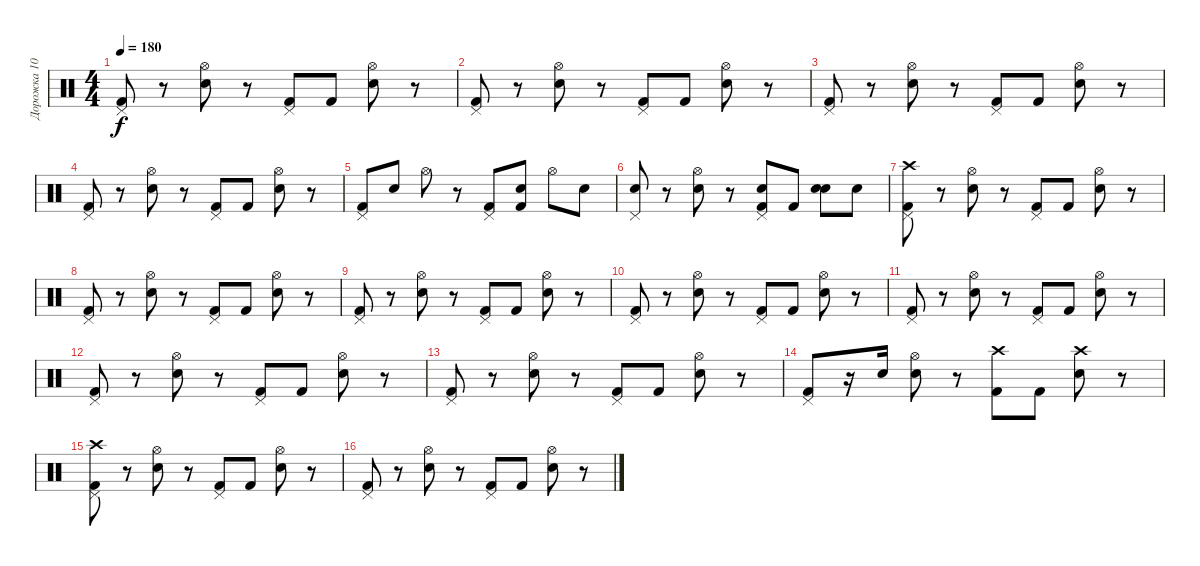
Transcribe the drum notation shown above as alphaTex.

\track ("Дорожка 10" "Дорожка 10") {instrument percussion}
\staff {score}
\articulation defaults
\ts (4 4)
\tempo 180
\clef neutral
\ks c
("Kick (hit) 2" "Pedal Hi-Hat (hit)").8{dy f} r.8 ("Snare (hit) 2" "Hi-Hat (open)").8 r.8 ("Kick (hit) 2" "Pedal Hi-Hat (hit)").8 "Kick (hit) 2".8 ("Snare (hit) 2" "Hi-Hat (open)").8 r.8 |
("Kick (hit) 2" "Pedal Hi-Hat (hit)").8 r.8 ("Snare (hit) 2" "Hi-Hat (open)").8 r.8 ("Kick (hit) 2" "Pedal Hi-Hat (hit)").8 "Kick (hit) 2".8 ("Snare (hit) 2" "Hi-Hat (open)").8 r.8 |
("Kick (hit) 2" "Pedal Hi-Hat (hit)").8 r.8 ("Snare (hit) 2" "Hi-Hat (open)").8 r.8 ("Kick (hit) 2" "Pedal Hi-Hat (hit)").8 "Kick (hit) 2".8 ("Snare (hit) 2" "Hi-Hat (open)").8 r.8 |
("Kick (hit) 2" "Pedal Hi-Hat (hit)").8 r.8 ("Snare (hit) 2" "Hi-Hat (open)").8 r.8 ("Kick (hit) 2" "Pedal Hi-Hat (hit)").8 "Kick (hit) 2".8 ("Snare (hit) 2" "Hi-Hat (open)").8 r.8 |
("Kick (hit) 2" "Pedal Hi-Hat (hit)").8 "Snare (hit) 2".8 "Hi-Hat (open)".8 r.8 ("Kick (hit) 2" "Pedal Hi-Hat (hit)").8 ("Snare (hit) 2" "Kick (hit) 2").8 "Hi-Hat (open)".8 "Snare (hit) 2".8 |
("Snare (hit) 2" "Pedal Hi-Hat (hit)").8 r.8 ("Snare (hit) 2" "Hi-Hat (open)").8 r.8 ("Snare (hit) 2" "Kick (hit) 2" "Pedal Hi-Hat (hit)").8 "Kick (hit) 2".8 ("Snare (hit) 2" "Electric Snare (hit)").8 "Snare (hit) 2".8 |
("Kick (hit) 2" "Crash high (hit)" "Pedal Hi-Hat (hit)").8 r.8 ("Snare (hit) 2" "Hi-Hat (open)").8 r.8 ("Kick (hit) 2" "Pedal Hi-Hat (hit)").8 "Kick (hit) 2".8 ("Snare (hit) 2" "Hi-Hat (open)").8 r.8 |
("Kick (hit) 2" "Pedal Hi-Hat (hit)").8 r.8 ("Snare (hit) 2" "Hi-Hat (open)").8 r.8 ("Kick (hit) 2" "Pedal Hi-Hat (hit)").8 "Kick (hit) 2".8 ("Snare (hit) 2" "Hi-Hat (open)").8 r.8 |
("Kick (hit) 2" "Pedal Hi-Hat (hit)").8 r.8 ("Snare (hit) 2" "Hi-Hat (open)").8 r.8 ("Kick (hit) 2" "Pedal Hi-Hat (hit)").8 "Kick (hit) 2".8 ("Snare (hit) 2" "Hi-Hat (open)").8 r.8 |
("Kick (hit) 2" "Pedal Hi-Hat (hit)").8 r.8 ("Snare (hit) 2" "Hi-Hat (open)").8 r.8 ("Kick (hit) 2" "Pedal Hi-Hat (hit)").8 "Kick (hit) 2".8 ("Snare (hit) 2" "Hi-Hat (open)").8 r.8 |
("Kick (hit) 2" "Pedal Hi-Hat (hit)").8 r.8 ("Snare (hit) 2" "Hi-Hat (open)").8 r.8 ("Kick (hit) 2" "Pedal Hi-Hat (hit)").8 "Kick (hit) 2".8 ("Snare (hit) 2" "Hi-Hat (open)").8 r.8 |
("Kick (hit) 2" "Pedal Hi-Hat (hit)").8 r.8 ("Snare (hit) 2" "Hi-Hat (open)").8 r.8 ("Kick (hit) 2" "Pedal Hi-Hat (hit)").8 "Kick (hit) 2".8 ("Snare (hit) 2" "Hi-Hat (open)").8 r.8 |
("Kick (hit) 2" "Pedal Hi-Hat (hit)").8 r.8 ("Snare (hit) 2" "Hi-Hat (open)").8 r.8 ("Kick (hit) 2" "Pedal Hi-Hat (hit)").8 "Kick (hit) 2".8 ("Snare (hit) 2" "Hi-Hat (open)").8 r.8 |
("Kick (hit) 2" "Pedal Hi-Hat (hit)").8 r.16 "Snare (hit) 2".16 ("Snare (hit) 2" "Hi-Hat (open)").8 r.8 ("Kick (hit) 2" "Crash high (hit)").8 "Kick (hit) 2".8 ("Snare (hit) 2" "Crash high (hit)").8 r.8 |
("Kick (hit) 2" "Crash high (hit)" "Pedal Hi-Hat (hit)").8 r.8 ("Snare (hit) 2" "Hi-Hat (open)").8 r.8 ("Kick (hit) 2" "Pedal Hi-Hat (hit)").8 "Kick (hit) 2".8 ("Snare (hit) 2" "Hi-Hat (open)").8 r.8 |
("Kick (hit) 2" "Pedal Hi-Hat (hit)").8 r.8 ("Snare (hit) 2" "Hi-Hat (open)").8 r.8 ("Kick (hit) 2" "Pedal Hi-Hat (hit)").8 "Kick (hit) 2".8 ("Snare (hit) 2" "Hi-Hat (open)").8 r.8
